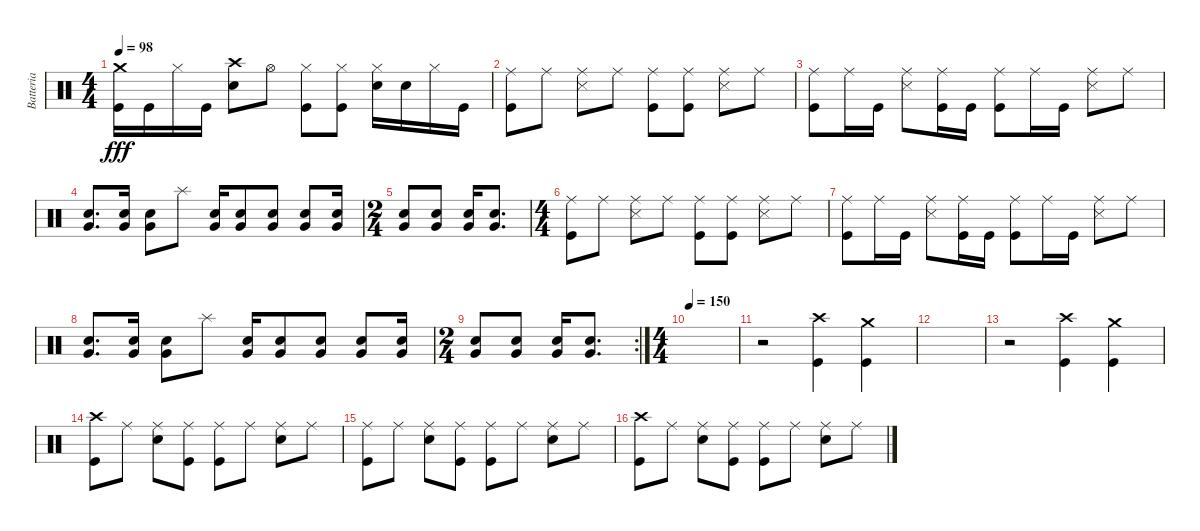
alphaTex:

\track ("Batteria" "Batteria") {instrument percussion}
\staff {score}
\articulation defaults
\ts (4 4)
\tempo 98
\clef neutral
\ks c
("Kick (hit)" "Crash medium (hit)").16{dy fff} "Kick (hit)".16 "Hi-Hat (closed)".16 "Kick (hit)".16 ("Crash high (hit)" "Electric Snare (hit)").8 "Hi-Hat (open)".8 ("Hi-Hat (closed)" "Kick (hit)").8 ("Kick (hit)" "Hi-Hat (closed)").8 ("Hi-Hat (closed)" "Electric Snare (hit)").16 "Electric Snare (hit)".16 "Hi-Hat (closed)".16 "Kick (hit)".16 |
("Ride (middle)" "Kick (hit)").8 "Ride (middle)".8 ("Ride (middle)" "Snare (side stick) 3").8 "Ride (middle)".8 ("Ride (middle)" "Kick (hit)").8 ("Ride (middle)" "Kick (hit)").8 ("Ride (middle)" "Snare (side stick) 3").8 "Ride (middle)".8 |
("Kick (hit)" "Ride (middle)").8 "Ride (middle)".16 "Kick (hit)".16 ("Ride (middle)" "Snare (side stick) 3").8 ("Ride (middle)" "Kick (hit)").16 "Kick (hit)".16 ("Ride (middle)" "Kick (hit)").8 "Ride (middle)".16 "Kick (hit)".16 ("Ride (middle)" "Snare (side stick) 3").8 "Ride (middle)".8 |
("Very Low Tom (hit)" "Electric Snare (hit)").8{d} ("Very Low Tom (hit)" "Electric Snare (hit)").16 ("Very Low Tom (hit)" "Electric Snare (hit)").8 "Splash (hit)".8 ("Very Low Tom (hit)" "Electric Snare (hit)").16 ("Electric Snare (hit)" "Very Low Tom (hit)").8 ("Electric Snare (hit)" "Very Low Tom (hit)").8 ("Electric Snare (hit)" "Very Low Tom (hit)").8 ("Electric Snare (hit)" "Very Low Tom (hit)").16 |
\ts (2 4)
("Very Low Tom (hit)" "Electric Snare (hit)").8 ("Electric Snare (hit)" "Very Low Tom (hit)").8 ("Very Low Tom (hit)" "Electric Snare (hit)").16 ("Very Low Tom (hit)" "Electric Snare (hit)").8{d} |
\ts (4 4)
("Ride (middle)" "Kick (hit)").8 "Ride (middle)".8 ("Ride (middle)" "Snare (side stick) 3").8 "Ride (middle)".8 ("Ride (middle)" "Kick (hit)").8 ("Ride (middle)" "Kick (hit)").8 ("Ride (middle)" "Snare (side stick) 3").8 "Ride (middle)".8 |
("Kick (hit)" "Ride (middle)").8 "Ride (middle)".16 "Kick (hit)".16 ("Ride (middle)" "Snare (side stick) 3").8 ("Ride (middle)" "Kick (hit)").16 "Kick (hit)".16 ("Ride (middle)" "Kick (hit)").8 "Ride (middle)".16 "Kick (hit)".16 ("Ride (middle)" "Snare (side stick) 3").8 "Ride (middle)".8 |
("Very Low Tom (hit)" "Electric Snare (hit)").8{d} ("Very Low Tom (hit)" "Electric Snare (hit)").16 ("Very Low Tom (hit)" "Electric Snare (hit)").8 "Splash (hit)".8 ("Very Low Tom (hit)" "Electric Snare (hit)").16 ("Electric Snare (hit)" "Very Low Tom (hit)").8 ("Electric Snare (hit)" "Very Low Tom (hit)").8 ("Electric Snare (hit)" "Very Low Tom (hit)").8 ("Electric Snare (hit)" "Very Low Tom (hit)").16 |
\rc 2
\ts (2 4)
("Very Low Tom (hit)" "Electric Snare (hit)").8 ("Electric Snare (hit)" "Very Low Tom (hit)").8 ("Very Low Tom (hit)" "Electric Snare (hit)").16 ("Very Low Tom (hit)" "Electric Snare (hit)").8{d} |
\ts (4 4)
\tempo 150
|
r.2 ("Kick (hit)" "Crash high (hit)").4 ("Crash medium (hit)" "Kick (hit)").4 |
|
r.2 ("Kick (hit)" "Crash high (hit)").4 ("Crash medium (hit)" "Kick (hit)").4 |
("Kick (hit)" "Crash high (hit)").8 "Ride (middle)".8 ("Ride (middle)" "Electric Snare (hit)").8 ("Kick (hit)" "Ride (middle)").8 ("Kick (hit)" "Ride (middle)").8 "Ride (middle)".8 ("Electric Snare (hit)" "Ride (middle)").8 "Ride (middle)".8 |
("Kick (hit)" "Ride (middle)").8 "Ride (middle)".8 ("Ride (middle)" "Electric Snare (hit)").8 ("Kick (hit)" "Ride (middle)").8 ("Kick (hit)" "Ride (middle)").8 "Ride (middle)".8 ("Electric Snare (hit)" "Ride (middle)").8 "Ride (middle)".8 |
("Kick (hit)" "Crash high (hit)").8 "Ride (middle)".8 ("Ride (middle)" "Electric Snare (hit)").8 ("Kick (hit)" "Ride (middle)").8 ("Kick (hit)" "Ride (middle)").8 "Ride (middle)".8 ("Electric Snare (hit)" "Ride (middle)").8 "Ride (middle)".8
